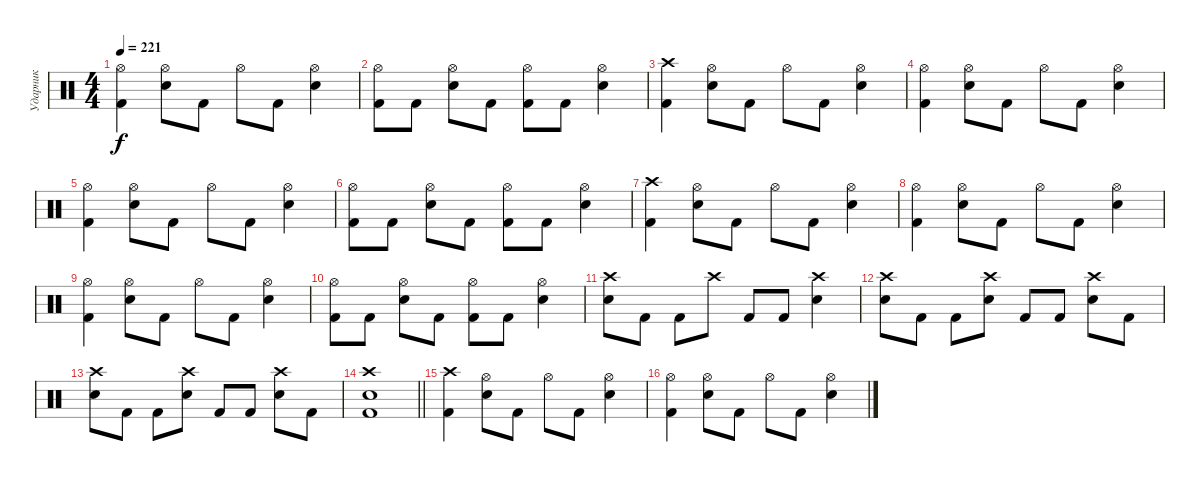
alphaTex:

\track ("Ударник" "Ударник") {instrument percussion}
\staff {score}
\articulation defaults
\ts (4 4)
\tempo 221
\clef neutral
\ks c
("Kick (hit) 2" "Hi-Hat (open)").4{dy f} ("Snare (hit) 2" "Hi-Hat (open)").8 "Kick (hit) 2".8 "Hi-Hat (open)".8 "Kick (hit) 2".8 ("Snare (hit) 2" "Hi-Hat (open)").4 |
("Kick (hit) 2" "Hi-Hat (open)").8 "Kick (hit) 2".8 ("Snare (hit) 2" "Hi-Hat (open)").8 "Kick (hit) 2".8 ("Kick (hit) 2" "Hi-Hat (open)").8 "Kick (hit) 2".8 ("Snare (hit) 2" "Hi-Hat (open)").4 |
("Kick (hit) 2" "Crash high (hit)").4 ("Snare (hit) 2" "Hi-Hat (open)").8 "Kick (hit) 2".8 "Hi-Hat (open)".8 "Kick (hit) 2".8 ("Snare (hit) 2" "Hi-Hat (open)").4 |
("Kick (hit) 2" "Hi-Hat (open)").4 ("Snare (hit) 2" "Hi-Hat (open)").8 "Kick (hit) 2".8 "Hi-Hat (open)".8 "Kick (hit) 2".8 ("Snare (hit) 2" "Hi-Hat (open)").4 |
("Kick (hit) 2" "Hi-Hat (open)").4 ("Snare (hit) 2" "Hi-Hat (open)").8 "Kick (hit) 2".8 "Hi-Hat (open)".8 "Kick (hit) 2".8 ("Snare (hit) 2" "Hi-Hat (open)").4 |
("Kick (hit) 2" "Hi-Hat (open)").8 "Kick (hit) 2".8 ("Snare (hit) 2" "Hi-Hat (open)").8 "Kick (hit) 2".8 ("Kick (hit) 2" "Hi-Hat (open)").8 "Kick (hit) 2".8 ("Snare (hit) 2" "Hi-Hat (open)").4 |
("Kick (hit) 2" "Crash high (hit)").4 ("Snare (hit) 2" "Hi-Hat (open)").8 "Kick (hit) 2".8 "Hi-Hat (open)".8 "Kick (hit) 2".8 ("Snare (hit) 2" "Hi-Hat (open)").4 |
("Kick (hit) 2" "Hi-Hat (open)").4 ("Snare (hit) 2" "Hi-Hat (open)").8 "Kick (hit) 2".8 "Hi-Hat (open)".8 "Kick (hit) 2".8 ("Snare (hit) 2" "Hi-Hat (open)").4 |
("Kick (hit) 2" "Hi-Hat (open)").4 ("Snare (hit) 2" "Hi-Hat (open)").8 "Kick (hit) 2".8 "Hi-Hat (open)".8 "Kick (hit) 2".8 ("Snare (hit) 2" "Hi-Hat (open)").4 |
("Kick (hit) 2" "Hi-Hat (open)").8 "Kick (hit) 2".8 ("Snare (hit) 2" "Hi-Hat (open)").8 "Kick (hit) 2".8 ("Kick (hit) 2" "Hi-Hat (open)").8 "Kick (hit) 2".8 ("Snare (hit) 2" "Hi-Hat (open)").4 |
("Snare (hit) 2" "Crash high (hit)").8 "Kick (hit) 2".8 "Kick (hit) 2".8 "Crash high (hit)".8 "Kick (hit) 2".8 "Kick (hit) 2".8 ("Snare (hit) 2" "Crash high (hit)").4 |
("Snare (hit) 2" "Crash high (hit)").8 "Kick (hit) 2".8 "Kick (hit) 2".8 ("Snare (hit) 2" "Crash high (hit)").8 "Kick (hit) 2".8 "Kick (hit) 2".8 ("Snare (hit) 2" "Crash high (hit)").8 "Kick (hit) 2".8 |
("Snare (hit) 2" "Crash high (hit)").8 "Kick (hit) 2".8 "Kick (hit) 2".8 ("Snare (hit) 2" "Crash high (hit)").8 "Kick (hit) 2".8 "Kick (hit) 2".8 ("Snare (hit) 2" "Crash high (hit)").8 "Kick (hit) 2".8 |
\barLineRight lightlight
("Kick (hit) 2" "Snare (hit) 2" "Crash high (hit)").1 |
("Kick (hit) 2" "Crash high (hit)").4 ("Snare (hit) 2" "Hi-Hat (open)").8 "Kick (hit) 2".8 "Hi-Hat (open)".8 "Kick (hit) 2".8 ("Snare (hit) 2" "Hi-Hat (open)").4 |
("Kick (hit) 2" "Hi-Hat (open)").4 ("Snare (hit) 2" "Hi-Hat (open)").8 "Kick (hit) 2".8 "Hi-Hat (open)".8 "Kick (hit) 2".8 ("Snare (hit) 2" "Hi-Hat (open)").4
